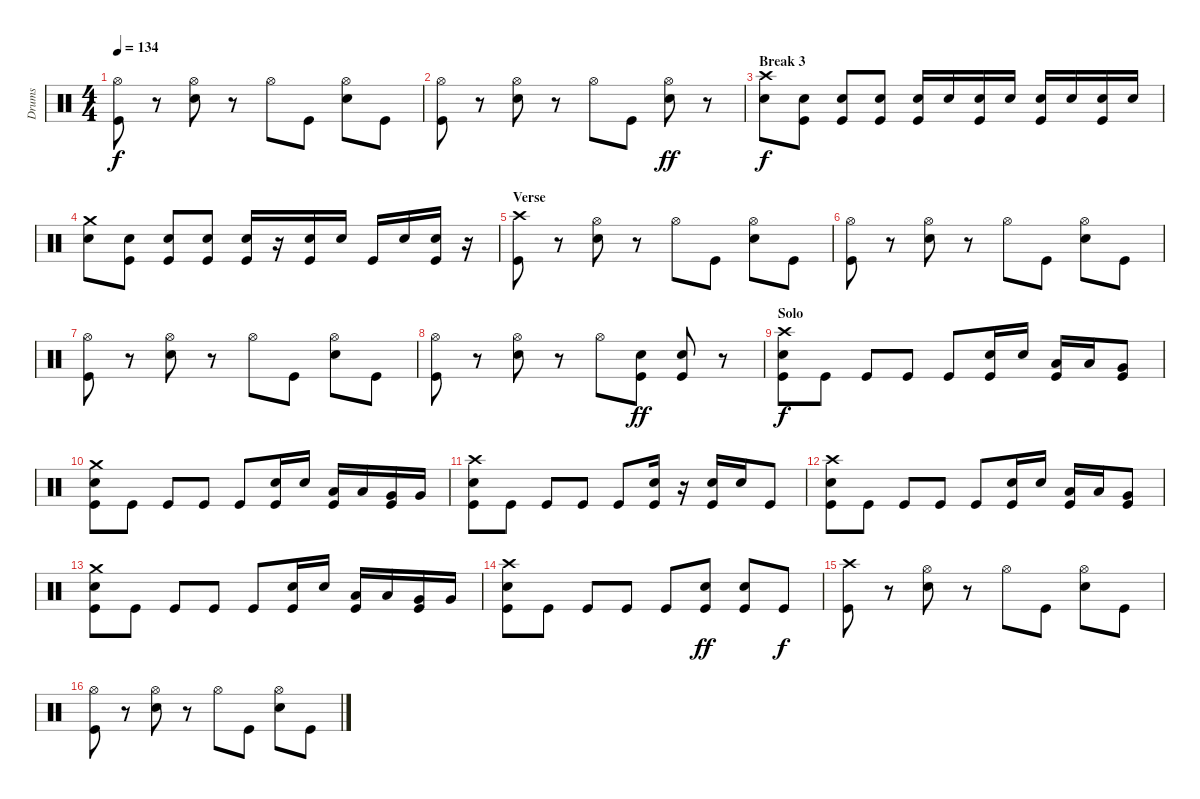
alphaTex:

\track ("Drums" "Drums") {instrument percussion}
\staff {score}
\articulation defaults
\ts (4 4)
\tempo 134
\clef neutral
\ks c
("Hi-Hat (open)" "Kick (hit)").8{dy f} r.8 ("Hi-Hat (open)" "Electric Snare (hit)").8 r.8 "Hi-Hat (open)".8 "Kick (hit)".8 ("Hi-Hat (open)" "Electric Snare (hit)").8 "Kick (hit)".8 |
("Hi-Hat (open)" "Kick (hit)").8 r.8 ("Hi-Hat (open)" "Electric Snare (hit)").8 r.8 "Hi-Hat (open)".8 "Kick (hit)".8 ("Hi-Hat (open)" "Electric Snare (hit)").8{dy ff} r.8 |
\section ("" "Break 3")
("Crash high (hit)" "Electric Snare (hit)").8{dy f} ("Electric Snare (hit)" "Kick (hit)").8 ("Electric Snare (hit)" "Kick (hit)").8 ("Electric Snare (hit)" "Kick (hit)").8 ("Electric Snare (hit)" "Kick (hit)").16 "Electric Snare (hit)".16 ("Electric Snare (hit)" "Kick (hit)").16 "Electric Snare (hit)".16 ("Electric Snare (hit)" "Kick (hit)").16 "Electric Snare (hit)".16 ("Electric Snare (hit)" "Kick (hit)").16 "Electric Snare (hit)".16 |
("Crash medium (hit)" "Electric Snare (hit)").8 ("Electric Snare (hit)" "Kick (hit)").8 ("Electric Snare (hit)" "Kick (hit)").8 ("Electric Snare (hit)" "Kick (hit)").8 ("Electric Snare (hit)" "Kick (hit)").16 r.16 ("Electric Snare (hit)" "Kick (hit)").16 "Electric Snare (hit)".16 "Kick (hit)".16 "Electric Snare (hit)".16 ("Electric Snare (hit)" "Kick (hit)").16 r.16 |
\section ("" "Verse")
("Crash high (hit)" "Kick (hit)").8 r.8 ("Hi-Hat (open)" "Electric Snare (hit)").8 r.8 "Hi-Hat (open)".8 "Kick (hit)".8 ("Hi-Hat (open)" "Electric Snare (hit)").8 "Kick (hit)".8 |
("Hi-Hat (open)" "Kick (hit)").8 r.8 ("Hi-Hat (open)" "Electric Snare (hit)").8 r.8 "Hi-Hat (open)".8 "Kick (hit)".8 ("Hi-Hat (open)" "Electric Snare (hit)").8 "Kick (hit)".8 |
("Hi-Hat (open)" "Kick (hit)").8 r.8 ("Hi-Hat (open)" "Electric Snare (hit)").8 r.8 "Hi-Hat (open)".8 "Kick (hit)".8 ("Hi-Hat (open)" "Electric Snare (hit)").8 "Kick (hit)".8 |
("Hi-Hat (open)" "Kick (hit)").8 r.8 ("Hi-Hat (open)" "Electric Snare (hit)").8 r.8 "Hi-Hat (open)".8 ("Electric Snare (hit)" "Kick (hit)").8{dy ff} ("Electric Snare (hit)" "Kick (hit)").8 r.8 |
\section ("" "Solo")
("Crash high (hit)" "Electric Snare (hit)" "Kick (hit)").8{dy f} "Kick (hit)".8 "Kick (hit)".8 "Kick (hit)".8 "Kick (hit)".8 ("Electric Snare (hit)" "Kick (hit)").16 "Electric Snare (hit)".16 ("Low Tom (hit)" "Kick (hit)").16 "Low Tom (hit)".16 ("Very Low Tom (hit)" "Kick (hit)").8 |
("Crash medium (hit)" "Electric Snare (hit)" "Kick (hit)").8 "Kick (hit)".8 "Kick (hit)".8 "Kick (hit)".8 "Kick (hit)".8 ("Electric Snare (hit)" "Kick (hit)").16 "Electric Snare (hit)".16 ("Low Tom (hit)" "Kick (hit)").16 "Low Tom (hit)".16 ("Very Low Tom (hit)" "Kick (hit)").16 "Very Low Tom (hit)".16 |
("Crash high (hit)" "Electric Snare (hit)" "Kick (hit)").8 "Kick (hit)".8 "Kick (hit)".8 "Kick (hit)".8 "Kick (hit)".8 ("Electric Snare (hit)" "Kick (hit)").16 r.16 ("Electric Snare (hit)" "Kick (hit)").16 "Electric Snare (hit)".16 "Kick (hit)".8 |
("Crash high (hit)" "Electric Snare (hit)" "Kick (hit)").8 "Kick (hit)".8 "Kick (hit)".8 "Kick (hit)".8 "Kick (hit)".8 ("Electric Snare (hit)" "Kick (hit)").16 "Electric Snare (hit)".16 ("Low Tom (hit)" "Kick (hit)").16 "Low Tom (hit)".16 ("Very Low Tom (hit)" "Kick (hit)").8 |
("Crash medium (hit)" "Electric Snare (hit)" "Kick (hit)").8 "Kick (hit)".8 "Kick (hit)".8 "Kick (hit)".8 "Kick (hit)".8 ("Electric Snare (hit)" "Kick (hit)").16 "Electric Snare (hit)".16 ("Low Tom (hit)" "Kick (hit)").16 "Low Tom (hit)".16 ("Very Low Tom (hit)" "Kick (hit)").16 "Very Low Tom (hit)".16 |
("Crash high (hit)" "Electric Snare (hit)" "Kick (hit)").8 "Kick (hit)".8 "Kick (hit)".8 "Kick (hit)".8 "Kick (hit)".8 ("Electric Snare (hit)" "Kick (hit)").8{dy ff} ("Electric Snare (hit)" "Kick (hit)").8 "Kick (hit)".8{dy f} |
("Crash high (hit)" "Kick (hit)").8 r.8 ("Hi-Hat (open)" "Electric Snare (hit)").8 r.8 "Hi-Hat (open)".8 "Kick (hit)".8 ("Hi-Hat (open)" "Electric Snare (hit)").8 "Kick (hit)".8 |
("Hi-Hat (open)" "Kick (hit)").8 r.8 ("Hi-Hat (open)" "Electric Snare (hit)").8 r.8 "Hi-Hat (open)".8 "Kick (hit)".8 ("Hi-Hat (open)" "Electric Snare (hit)").8 "Kick (hit)".8
